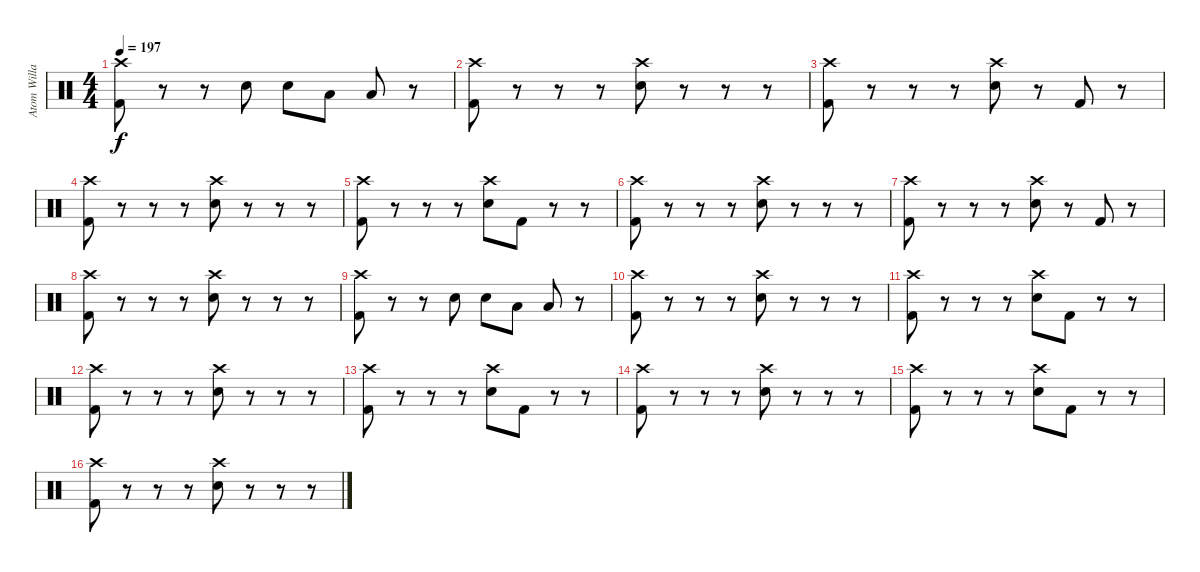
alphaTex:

\track ("Atom Willard Drums" "Atom Willa") {instrument percussion}
\staff {score}
\articulation defaults
\ts (4 4)
\tempo 197
\clef neutral
\ks c
("Crash high (hit)" "Kick (hit) 2").8{dy f} r.8 r.8 "Electric Snare (hit)".8 "Electric Snare (hit)".8 "Low Tom (hit)".8 "Low Tom (hit)".8 r.8 |
("Crash high (hit)" "Kick (hit) 2").8 r.8 r.8 r.8 ("Crash high (hit)" "Electric Snare (hit)").8 r.8 r.8 r.8 |
("Crash high (hit)" "Kick (hit) 2").8 r.8 r.8 r.8 ("Crash high (hit)" "Electric Snare (hit)").8 r.8 "Kick (hit) 2".8 r.8 |
("Crash high (hit)" "Kick (hit) 2").8 r.8 r.8 r.8 ("Crash high (hit)" "Electric Snare (hit)").8 r.8 r.8 r.8 |
("Crash high (hit)" "Kick (hit) 2").8 r.8 r.8 r.8 ("Crash high (hit)" "Electric Snare (hit)").8 "Kick (hit) 2".8 r.8 r.8 |
("Crash high (hit)" "Kick (hit) 2").8 r.8 r.8 r.8 ("Crash high (hit)" "Electric Snare (hit)").8 r.8 r.8 r.8 |
("Crash high (hit)" "Kick (hit) 2").8 r.8 r.8 r.8 ("Crash high (hit)" "Electric Snare (hit)").8 r.8 "Kick (hit) 2".8 r.8 |
("Crash high (hit)" "Kick (hit) 2").8 r.8 r.8 r.8 ("Crash high (hit)" "Electric Snare (hit)").8 r.8 r.8 r.8 |
("Crash high (hit)" "Kick (hit) 2").8 r.8 r.8 "Electric Snare (hit)".8 "Electric Snare (hit)".8 "Low Tom (hit)".8 "Low Tom (hit)".8 r.8 |
("Crash high (hit)" "Kick (hit) 2").8 r.8 r.8 r.8 ("Crash high (hit)" "Electric Snare (hit)").8 r.8 r.8 r.8 |
("Crash high (hit)" "Kick (hit) 2").8 r.8 r.8 r.8 ("Crash high (hit)" "Electric Snare (hit)").8 "Kick (hit) 2".8 r.8 r.8 |
("Crash high (hit)" "Kick (hit) 2").8 r.8 r.8 r.8 ("Crash high (hit)" "Electric Snare (hit)").8 r.8 r.8 r.8 |
("Crash high (hit)" "Kick (hit) 2").8 r.8 r.8 r.8 ("Crash high (hit)" "Electric Snare (hit)").8 "Kick (hit) 2".8 r.8 r.8 |
("Crash high (hit)" "Kick (hit) 2").8 r.8 r.8 r.8 ("Crash high (hit)" "Electric Snare (hit)").8 r.8 r.8 r.8 |
("Crash high (hit)" "Kick (hit) 2").8 r.8 r.8 r.8 ("Crash high (hit)" "Electric Snare (hit)").8 "Kick (hit) 2".8 r.8 r.8 |
("Crash high (hit)" "Kick (hit) 2").8 r.8 r.8 r.8 ("Crash high (hit)" "Electric Snare (hit)").8 r.8 r.8 r.8
